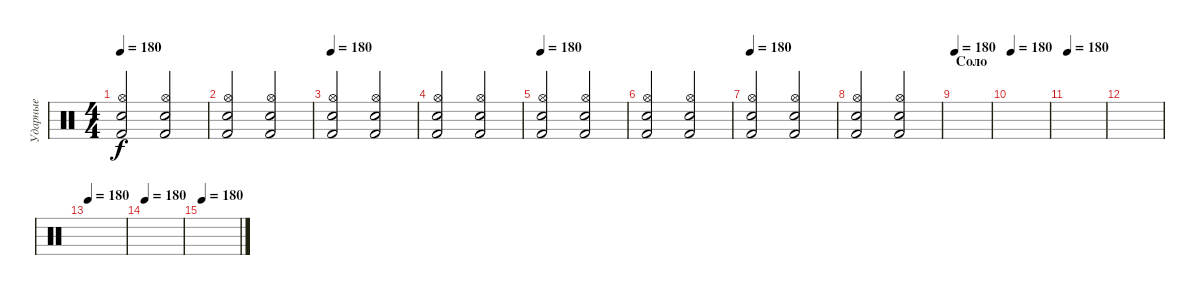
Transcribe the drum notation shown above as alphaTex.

\track ("Ударные" "Ударные") {instrument percussion}
\staff {score}
\articulation defaults
\ts (4 4)
\tempo 180
\clef neutral
\ks c
("Kick (hit) 2" "Hi-Hat (open)" "Snare (hit) 2").2{dy f} ("Kick (hit) 2" "Hi-Hat (open)" "Snare (hit) 2").2 |
("Kick (hit) 2" "Hi-Hat (open)" "Snare (hit) 2").2 ("Kick (hit) 2" "Hi-Hat (open)" "Snare (hit) 2").2 |
\tempo 180
("Kick (hit) 2" "Hi-Hat (open)" "Snare (hit) 2").2 ("Kick (hit) 2" "Hi-Hat (open)" "Snare (hit) 2").2 |
("Kick (hit) 2" "Hi-Hat (open)" "Snare (hit) 2").2 ("Kick (hit) 2" "Hi-Hat (open)" "Snare (hit) 2").2 |
\tempo 180
("Kick (hit) 2" "Hi-Hat (open)" "Snare (hit) 2").2 ("Kick (hit) 2" "Hi-Hat (open)" "Snare (hit) 2").2 |
("Kick (hit) 2" "Hi-Hat (open)" "Snare (hit) 2").2 ("Kick (hit) 2" "Hi-Hat (open)" "Snare (hit) 2").2 |
\tempo 180
("Kick (hit) 2" "Hi-Hat (open)" "Snare (hit) 2").2 ("Kick (hit) 2" "Hi-Hat (open)" "Snare (hit) 2").2 |
("Kick (hit) 2" "Hi-Hat (open)" "Snare (hit) 2").2 ("Kick (hit) 2" "Hi-Hat (open)" "Snare (hit) 2").2 |
\section ("" "Соло")
\tempo 180
|
\tempo 180
|
\tempo 180
|
|
\tempo 180
|
\tempo 180
|
\tempo 180
